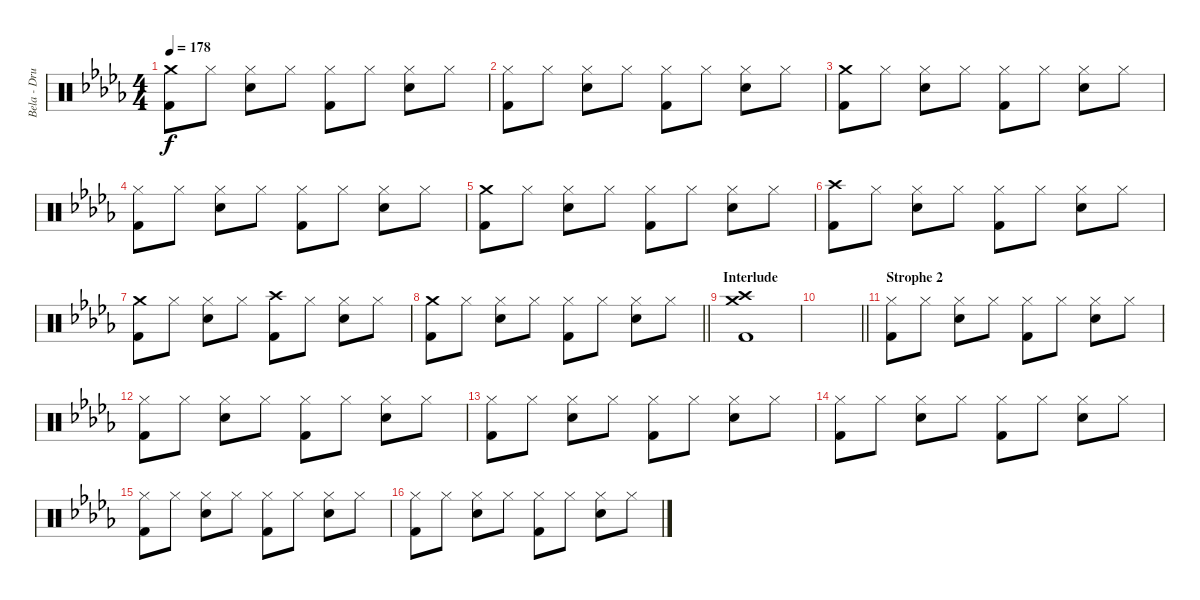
\track ("Bela - Drums" "Bela - Dru") {instrument percussion}
\staff {score}
\articulation defaults
\ts (4 4)
\tempo 178
\clef neutral
\ks db
("Crash medium (hit)" "Kick (hit) 2").8{dy f} "Hi-Hat (closed)".8 ("Hi-Hat (closed)" "Snare (hit) 2").8 "Hi-Hat (closed)".8 ("Hi-Hat (closed)" "Kick (hit) 2").8 "Hi-Hat (closed)".8 ("Hi-Hat (closed)" "Snare (hit) 2").8 "Hi-Hat (closed)".8 |
("Hi-Hat (closed)" "Kick (hit) 2").8 "Hi-Hat (closed)".8 ("Hi-Hat (closed)" "Snare (hit) 2").8 "Hi-Hat (closed)".8 ("Hi-Hat (closed)" "Kick (hit) 2").8 "Hi-Hat (closed)".8 ("Hi-Hat (closed)" "Snare (hit) 2").8 "Hi-Hat (closed)".8 |
("Crash medium (hit)" "Kick (hit) 2").8 "Hi-Hat (closed)".8 ("Hi-Hat (closed)" "Snare (hit) 2").8 "Hi-Hat (closed)".8 ("Hi-Hat (closed)" "Kick (hit) 2").8 "Hi-Hat (closed)".8 ("Hi-Hat (closed)" "Snare (hit) 2").8 "Hi-Hat (closed)".8 |
("Hi-Hat (closed)" "Kick (hit) 2").8 "Hi-Hat (closed)".8 ("Hi-Hat (closed)" "Snare (hit) 2").8 "Hi-Hat (closed)".8 ("Hi-Hat (closed)" "Kick (hit) 2").8 "Hi-Hat (closed)".8 ("Hi-Hat (closed)" "Snare (hit) 2").8 "Hi-Hat (closed)".8 |
("Crash medium (hit)" "Kick (hit) 2").8 "Hi-Hat (closed)".8 ("Hi-Hat (closed)" "Snare (hit) 2").8 "Hi-Hat (closed)".8 ("Hi-Hat (closed)" "Kick (hit) 2").8 "Hi-Hat (closed)".8 ("Hi-Hat (closed)" "Snare (hit) 2").8 "Hi-Hat (closed)".8 |
("Crash high (hit)" "Kick (hit) 2").8 "Hi-Hat (closed)".8 ("Hi-Hat (closed)" "Snare (hit) 2").8 "Hi-Hat (closed)".8 ("Hi-Hat (closed)" "Kick (hit) 2").8 "Hi-Hat (closed)".8 ("Hi-Hat (closed)" "Snare (hit) 2").8 "Hi-Hat (closed)".8 |
("Crash medium (hit)" "Kick (hit) 2").8 "Hi-Hat (closed)".8 ("Hi-Hat (closed)" "Snare (hit) 2").8 "Hi-Hat (closed)".8 ("Crash high (hit)" "Kick (hit) 2").8 "Hi-Hat (closed)".8 ("Hi-Hat (closed)" "Snare (hit) 2").8 "Hi-Hat (closed)".8 |
\barLineRight lightlight
("Crash medium (hit)" "Kick (hit) 2").8 "Hi-Hat (closed)".8 ("Hi-Hat (closed)" "Snare (hit) 2").8 "Hi-Hat (closed)".8 ("Hi-Hat (closed)" "Kick (hit) 2").8 "Hi-Hat (closed)".8 ("Hi-Hat (closed)" "Snare (hit) 2").8 "Hi-Hat (closed)".8 |
\section ("" "Interlude")
("Crash high (hit)" "Crash medium (hit)" "Kick (hit) 2").1 |
\barLineRight lightlight
|
\section ("" "Strophe 2")
("Hi-Hat (closed)" "Kick (hit) 2").8 "Hi-Hat (closed)".8 ("Hi-Hat (closed)" "Snare (hit) 2").8 "Hi-Hat (closed)".8 ("Hi-Hat (closed)" "Kick (hit) 2").8 "Hi-Hat (closed)".8 ("Hi-Hat (closed)" "Snare (hit) 2").8 "Hi-Hat (closed)".8 |
("Hi-Hat (closed)" "Kick (hit) 2").8 "Hi-Hat (closed)".8 ("Hi-Hat (closed)" "Snare (hit) 2").8 "Hi-Hat (closed)".8 ("Hi-Hat (closed)" "Kick (hit) 2").8 "Hi-Hat (closed)".8 ("Hi-Hat (closed)" "Snare (hit) 2").8 "Hi-Hat (closed)".8 |
("Hi-Hat (closed)" "Kick (hit) 2").8 "Hi-Hat (closed)".8 ("Hi-Hat (closed)" "Snare (hit) 2").8 "Hi-Hat (closed)".8 ("Hi-Hat (closed)" "Kick (hit) 2").8 "Hi-Hat (closed)".8 ("Hi-Hat (closed)" "Snare (hit) 2").8 "Hi-Hat (closed)".8 |
("Hi-Hat (closed)" "Kick (hit) 2").8 "Hi-Hat (closed)".8 ("Hi-Hat (closed)" "Snare (hit) 2").8 "Hi-Hat (closed)".8 ("Hi-Hat (closed)" "Kick (hit) 2").8 "Hi-Hat (closed)".8 ("Hi-Hat (closed)" "Snare (hit) 2").8 "Hi-Hat (closed)".8 |
("Hi-Hat (closed)" "Kick (hit) 2").8 "Hi-Hat (closed)".8 ("Hi-Hat (closed)" "Snare (hit) 2").8 "Hi-Hat (closed)".8 ("Hi-Hat (closed)" "Kick (hit) 2").8 "Hi-Hat (closed)".8 ("Hi-Hat (closed)" "Snare (hit) 2").8 "Hi-Hat (closed)".8 |
("Hi-Hat (closed)" "Kick (hit) 2").8 "Hi-Hat (closed)".8 ("Hi-Hat (closed)" "Snare (hit) 2").8 "Hi-Hat (closed)".8 ("Hi-Hat (closed)" "Kick (hit) 2").8 "Hi-Hat (closed)".8 ("Hi-Hat (closed)" "Snare (hit) 2").8 "Hi-Hat (closed)".8
